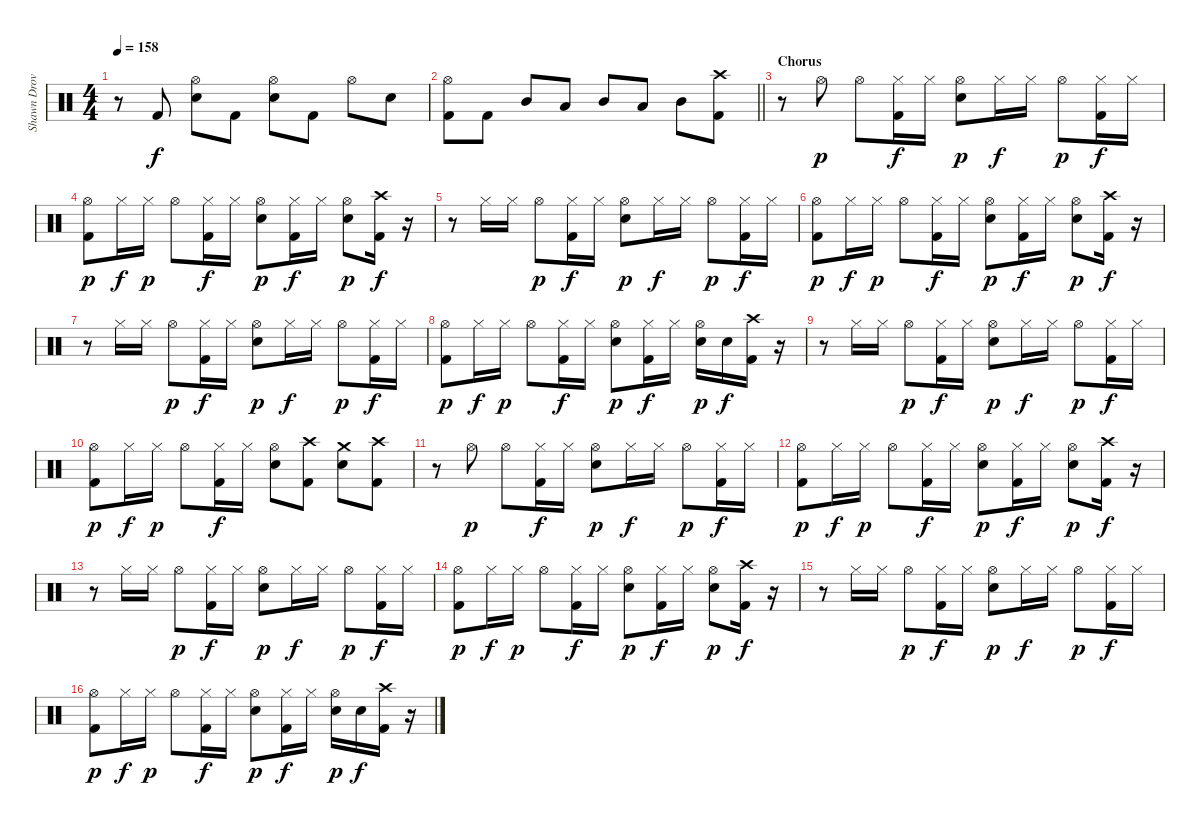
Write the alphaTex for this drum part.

\track ("Shawn Drover" "Shawn Drov") {instrument percussion}
\staff
\articulation defaults
\ts (4 4)
\tempo 158
\clef neutral
\ks c
r.8{dy f} "Kick (hit) 2".8 ("Hi-Hat (open)" "Snare (hit) 2").8 "Kick (hit) 2".8 ("Hi-Hat (open)" "Snare (hit) 2").8 "Kick (hit) 2".8 "Hi-Hat (open)".8 "Snare (hit) 2".8 |
\barLineRight lightlight
("Hi-Hat (open)" "Kick (hit) 2").8 "Kick (hit) 2".8 "Mid Tom (hit)".8 "Low Tom (hit)".8 "Mid Tom (hit)".8 "Low Tom (hit)".8 "Mid Tom (hit)".8 ("Crash high (hit)" "Kick (hit) 2").8 |
\section ("" "Chorus")
r.8 "Hi-Hat (open)".8{dy p} "Hi-Hat (open)".8 ("Hi-Hat (closed)" "Kick (hit) 2").16{dy f} "Hi-Hat (closed)".16 ("Hi-Hat (open)" "Snare (hit) 2").8{dy p} "Hi-Hat (closed)".16{dy f} "Hi-Hat (closed)".16 "Hi-Hat (open)".8{dy p} ("Hi-Hat (closed)" "Kick (hit) 2").16{dy f} "Hi-Hat (closed)".16 |
("Hi-Hat (open)" "Kick (hit) 2").8{dy p} "Hi-Hat (closed)".16{dy f} "Hi-Hat (closed)".16{dy p} "Hi-Hat (open)".8 ("Hi-Hat (closed)" "Kick (hit) 2").16{dy f} "Hi-Hat (closed)".16 ("Hi-Hat (open)" "Snare (hit) 2").8{dy p} ("Hi-Hat (closed)" "Kick (hit) 2").16{dy f} "Hi-Hat (closed)".16 ("Hi-Hat (open)" "Snare (hit) 2").8{dy p} ("Crash high (hit)" "Kick (hit) 2").16{dy f} r.16 |
r.8 "Hi-Hat (closed)".16 "Hi-Hat (closed)".16 "Hi-Hat (open)".8{dy p} ("Hi-Hat (closed)" "Kick (hit) 2").16{dy f} "Hi-Hat (closed)".16 ("Hi-Hat (open)" "Snare (hit) 2").8{dy p} "Hi-Hat (closed)".16{dy f} "Hi-Hat (closed)".16 "Hi-Hat (open)".8{dy p} ("Hi-Hat (closed)" "Kick (hit) 2").16{dy f} "Hi-Hat (closed)".16 |
("Hi-Hat (open)" "Kick (hit) 2").8{dy p} "Hi-Hat (closed)".16{dy f} "Hi-Hat (closed)".16{dy p} "Hi-Hat (open)".8 ("Hi-Hat (closed)" "Kick (hit) 2").16{dy f} "Hi-Hat (closed)".16 ("Hi-Hat (open)" "Snare (hit) 2").8{dy p} ("Hi-Hat (closed)" "Kick (hit) 2").16{dy f} "Hi-Hat (closed)".16 ("Hi-Hat (open)" "Snare (hit) 2").8{dy p} ("Crash high (hit)" "Kick (hit) 2").16{dy f} r.16 |
r.8 "Hi-Hat (closed)".16 "Hi-Hat (closed)".16 "Hi-Hat (open)".8{dy p} ("Hi-Hat (closed)" "Kick (hit) 2").16{dy f} "Hi-Hat (closed)".16 ("Hi-Hat (open)" "Snare (hit) 2").8{dy p} "Hi-Hat (closed)".16{dy f} "Hi-Hat (closed)".16 "Hi-Hat (open)".8{dy p} ("Hi-Hat (closed)" "Kick (hit) 2").16{dy f} "Hi-Hat (closed)".16 |
("Hi-Hat (open)" "Kick (hit) 2").8{dy p} "Hi-Hat (closed)".16{dy f} "Hi-Hat (closed)".16{dy p} "Hi-Hat (open)".8 ("Hi-Hat (closed)" "Kick (hit) 2").16{dy f} "Hi-Hat (closed)".16 ("Hi-Hat (open)" "Snare (hit) 2").8{dy p} ("Hi-Hat (closed)" "Kick (hit) 2").16{dy f} "Hi-Hat (closed)".16 ("Hi-Hat (open)" "Snare (hit) 2").16{dy p} "Snare (hit) 2".16{dy f} ("Crash high (hit)" "Kick (hit) 2").16 r.16 |
r.8 "Hi-Hat (closed)".16 "Hi-Hat (closed)".16 "Hi-Hat (open)".8{dy p} ("Hi-Hat (closed)" "Kick (hit) 2").16{dy f} "Hi-Hat (closed)".16 ("Hi-Hat (open)" "Snare (hit) 2").8{dy p} "Hi-Hat (closed)".16{dy f} "Hi-Hat (closed)".16 "Hi-Hat (open)".8{dy p} ("Hi-Hat (closed)" "Kick (hit) 2").16{dy f} "Hi-Hat (closed)".16 |
("Hi-Hat (open)" "Kick (hit) 2").8{dy p} "Hi-Hat (closed)".16{dy f} "Hi-Hat (closed)".16{dy p} "Hi-Hat (open)".8 ("Hi-Hat (closed)" "Kick (hit) 2").16{dy f} "Hi-Hat (closed)".16 ("Hi-Hat (open)" "Snare (hit) 2").8 ("Crash high (hit)" "Kick (hit) 2").8 ("Crash medium (hit)" "Snare (hit) 2").8 ("Crash high (hit)" "Kick (hit) 2").8 |
r.8 "Hi-Hat (open)".8{dy p} "Hi-Hat (open)".8 ("Hi-Hat (closed)" "Kick (hit) 2").16{dy f} "Hi-Hat (closed)".16 ("Hi-Hat (open)" "Snare (hit) 2").8{dy p} "Hi-Hat (closed)".16{dy f} "Hi-Hat (closed)".16 "Hi-Hat (open)".8{dy p} ("Hi-Hat (closed)" "Kick (hit) 2").16{dy f} "Hi-Hat (closed)".16 |
("Hi-Hat (open)" "Kick (hit) 2").8{dy p} "Hi-Hat (closed)".16{dy f} "Hi-Hat (closed)".16{dy p} "Hi-Hat (open)".8 ("Hi-Hat (closed)" "Kick (hit) 2").16{dy f} "Hi-Hat (closed)".16 ("Hi-Hat (open)" "Snare (hit) 2").8{dy p} ("Hi-Hat (closed)" "Kick (hit) 2").16{dy f} "Hi-Hat (closed)".16 ("Hi-Hat (open)" "Snare (hit) 2").8{dy p} ("Crash high (hit)" "Kick (hit) 2").16{dy f} r.16 |
r.8 "Hi-Hat (closed)".16 "Hi-Hat (closed)".16 "Hi-Hat (open)".8{dy p} ("Hi-Hat (closed)" "Kick (hit) 2").16{dy f} "Hi-Hat (closed)".16 ("Hi-Hat (open)" "Snare (hit) 2").8{dy p} "Hi-Hat (closed)".16{dy f} "Hi-Hat (closed)".16 "Hi-Hat (open)".8{dy p} ("Hi-Hat (closed)" "Kick (hit) 2").16{dy f} "Hi-Hat (closed)".16 |
("Hi-Hat (open)" "Kick (hit) 2").8{dy p} "Hi-Hat (closed)".16{dy f} "Hi-Hat (closed)".16{dy p} "Hi-Hat (open)".8 ("Hi-Hat (closed)" "Kick (hit) 2").16{dy f} "Hi-Hat (closed)".16 ("Hi-Hat (open)" "Snare (hit) 2").8{dy p} ("Hi-Hat (closed)" "Kick (hit) 2").16{dy f} "Hi-Hat (closed)".16 ("Hi-Hat (open)" "Snare (hit) 2").8{dy p} ("Crash high (hit)" "Kick (hit) 2").16{dy f} r.16 |
r.8 "Hi-Hat (closed)".16 "Hi-Hat (closed)".16 "Hi-Hat (open)".8{dy p} ("Hi-Hat (closed)" "Kick (hit) 2").16{dy f} "Hi-Hat (closed)".16 ("Hi-Hat (open)" "Snare (hit) 2").8{dy p} "Hi-Hat (closed)".16{dy f} "Hi-Hat (closed)".16 "Hi-Hat (open)".8{dy p} ("Hi-Hat (closed)" "Kick (hit) 2").16{dy f} "Hi-Hat (closed)".16 |
("Hi-Hat (open)" "Kick (hit) 2").8{dy p} "Hi-Hat (closed)".16{dy f} "Hi-Hat (closed)".16{dy p} "Hi-Hat (open)".8 ("Hi-Hat (closed)" "Kick (hit) 2").16{dy f} "Hi-Hat (closed)".16 ("Hi-Hat (open)" "Snare (hit) 2").8{dy p} ("Hi-Hat (closed)" "Kick (hit) 2").16{dy f} "Hi-Hat (closed)".16 ("Hi-Hat (open)" "Snare (hit) 2").16{dy p} "Snare (hit) 2".16{dy f} ("Crash high (hit)" "Kick (hit) 2").16 r.16
